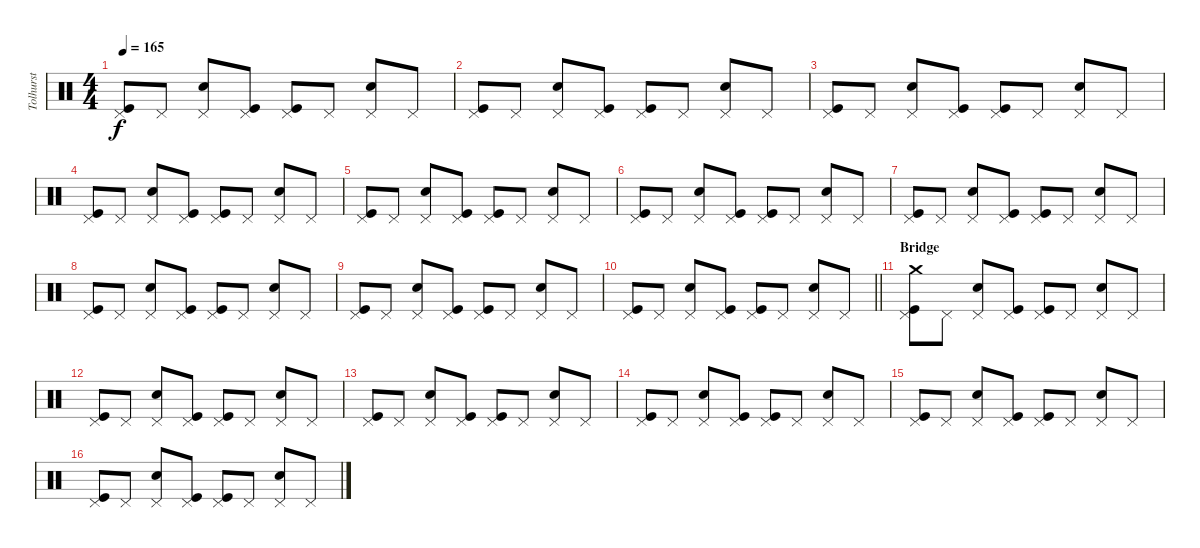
\track ("Tolhurst" "Tolhurst") {instrument percussion}
\staff {score}
\articulation defaults
\ts (4 4)
\tempo 165
\clef neutral
\ks c
("Pedal Hi-Hat (hit)" "Kick (hit)").8{dy f} "Pedal Hi-Hat (hit)".8 ("Pedal Hi-Hat (hit)" "Snare (hit) 2").8 ("Pedal Hi-Hat (hit)" "Kick (hit)").8 ("Pedal Hi-Hat (hit)" "Kick (hit)").8 "Pedal Hi-Hat (hit)".8 ("Pedal Hi-Hat (hit)" "Snare (hit) 2").8 "Pedal Hi-Hat (hit)".8 |
("Pedal Hi-Hat (hit)" "Kick (hit)").8 "Pedal Hi-Hat (hit)".8 ("Pedal Hi-Hat (hit)" "Snare (hit) 2").8 ("Pedal Hi-Hat (hit)" "Kick (hit)").8 ("Pedal Hi-Hat (hit)" "Kick (hit)").8 "Pedal Hi-Hat (hit)".8 ("Pedal Hi-Hat (hit)" "Snare (hit) 2").8 "Pedal Hi-Hat (hit)".8 |
("Pedal Hi-Hat (hit)" "Kick (hit)").8 "Pedal Hi-Hat (hit)".8 ("Pedal Hi-Hat (hit)" "Snare (hit) 2").8 ("Pedal Hi-Hat (hit)" "Kick (hit)").8 ("Pedal Hi-Hat (hit)" "Kick (hit)").8 "Pedal Hi-Hat (hit)".8 ("Pedal Hi-Hat (hit)" "Snare (hit) 2").8 "Pedal Hi-Hat (hit)".8 |
("Pedal Hi-Hat (hit)" "Kick (hit)").8 "Pedal Hi-Hat (hit)".8 ("Pedal Hi-Hat (hit)" "Snare (hit) 2").8 ("Pedal Hi-Hat (hit)" "Kick (hit)").8 ("Pedal Hi-Hat (hit)" "Kick (hit)").8 "Pedal Hi-Hat (hit)".8 ("Pedal Hi-Hat (hit)" "Snare (hit) 2").8 "Pedal Hi-Hat (hit)".8 |
("Pedal Hi-Hat (hit)" "Kick (hit)").8 "Pedal Hi-Hat (hit)".8 ("Pedal Hi-Hat (hit)" "Snare (hit) 2").8 ("Pedal Hi-Hat (hit)" "Kick (hit)").8 ("Pedal Hi-Hat (hit)" "Kick (hit)").8 "Pedal Hi-Hat (hit)".8 ("Pedal Hi-Hat (hit)" "Snare (hit) 2").8 "Pedal Hi-Hat (hit)".8 |
("Pedal Hi-Hat (hit)" "Kick (hit)").8 "Pedal Hi-Hat (hit)".8 ("Pedal Hi-Hat (hit)" "Snare (hit) 2").8 ("Pedal Hi-Hat (hit)" "Kick (hit)").8 ("Pedal Hi-Hat (hit)" "Kick (hit)").8 "Pedal Hi-Hat (hit)".8 ("Pedal Hi-Hat (hit)" "Snare (hit) 2").8 "Pedal Hi-Hat (hit)".8 |
("Pedal Hi-Hat (hit)" "Kick (hit)").8 "Pedal Hi-Hat (hit)".8 ("Pedal Hi-Hat (hit)" "Snare (hit) 2").8 ("Pedal Hi-Hat (hit)" "Kick (hit)").8 ("Pedal Hi-Hat (hit)" "Kick (hit)").8 "Pedal Hi-Hat (hit)".8 ("Pedal Hi-Hat (hit)" "Snare (hit) 2").8 "Pedal Hi-Hat (hit)".8 |
("Pedal Hi-Hat (hit)" "Kick (hit)").8 "Pedal Hi-Hat (hit)".8 ("Pedal Hi-Hat (hit)" "Snare (hit) 2").8 ("Pedal Hi-Hat (hit)" "Kick (hit)").8 ("Pedal Hi-Hat (hit)" "Kick (hit)").8 "Pedal Hi-Hat (hit)".8 ("Pedal Hi-Hat (hit)" "Snare (hit) 2").8 "Pedal Hi-Hat (hit)".8 |
("Pedal Hi-Hat (hit)" "Kick (hit)").8 "Pedal Hi-Hat (hit)".8 ("Pedal Hi-Hat (hit)" "Snare (hit) 2").8 ("Pedal Hi-Hat (hit)" "Kick (hit)").8 ("Pedal Hi-Hat (hit)" "Kick (hit)").8 "Pedal Hi-Hat (hit)".8 ("Pedal Hi-Hat (hit)" "Snare (hit) 2").8 "Pedal Hi-Hat (hit)".8 |
\barLineRight lightlight
("Pedal Hi-Hat (hit)" "Kick (hit)").8 "Pedal Hi-Hat (hit)".8 ("Pedal Hi-Hat (hit)" "Snare (hit) 2").8 ("Pedal Hi-Hat (hit)" "Kick (hit)").8 ("Pedal Hi-Hat (hit)" "Kick (hit)").8 "Pedal Hi-Hat (hit)".8 ("Pedal Hi-Hat (hit)" "Snare (hit) 2").8 "Pedal Hi-Hat (hit)".8 |
\section ("" "Bridge")
("Crash medium (hit)" "Pedal Hi-Hat (hit)" "Kick (hit)").8 "Pedal Hi-Hat (hit)".8 ("Pedal Hi-Hat (hit)" "Snare (hit) 2").8 ("Pedal Hi-Hat (hit)" "Kick (hit)").8 ("Pedal Hi-Hat (hit)" "Kick (hit)").8 "Pedal Hi-Hat (hit)".8 ("Pedal Hi-Hat (hit)" "Snare (hit) 2").8 "Pedal Hi-Hat (hit)".8 |
("Pedal Hi-Hat (hit)" "Kick (hit)").8 "Pedal Hi-Hat (hit)".8 ("Pedal Hi-Hat (hit)" "Snare (hit) 2").8 ("Pedal Hi-Hat (hit)" "Kick (hit)").8 ("Pedal Hi-Hat (hit)" "Kick (hit)").8 "Pedal Hi-Hat (hit)".8 ("Pedal Hi-Hat (hit)" "Snare (hit) 2").8 "Pedal Hi-Hat (hit)".8 |
("Pedal Hi-Hat (hit)" "Kick (hit)").8 "Pedal Hi-Hat (hit)".8 ("Pedal Hi-Hat (hit)" "Snare (hit) 2").8 ("Pedal Hi-Hat (hit)" "Kick (hit)").8 ("Pedal Hi-Hat (hit)" "Kick (hit)").8 "Pedal Hi-Hat (hit)".8 ("Pedal Hi-Hat (hit)" "Snare (hit) 2").8 "Pedal Hi-Hat (hit)".8 |
("Pedal Hi-Hat (hit)" "Kick (hit)").8 "Pedal Hi-Hat (hit)".8 ("Pedal Hi-Hat (hit)" "Snare (hit) 2").8 ("Pedal Hi-Hat (hit)" "Kick (hit)").8 ("Pedal Hi-Hat (hit)" "Kick (hit)").8 "Pedal Hi-Hat (hit)".8 ("Pedal Hi-Hat (hit)" "Snare (hit) 2").8 "Pedal Hi-Hat (hit)".8 |
("Pedal Hi-Hat (hit)" "Kick (hit)").8 "Pedal Hi-Hat (hit)".8 ("Pedal Hi-Hat (hit)" "Snare (hit) 2").8 ("Pedal Hi-Hat (hit)" "Kick (hit)").8 ("Pedal Hi-Hat (hit)" "Kick (hit)").8 "Pedal Hi-Hat (hit)".8 ("Pedal Hi-Hat (hit)" "Snare (hit) 2").8 "Pedal Hi-Hat (hit)".8 |
("Pedal Hi-Hat (hit)" "Kick (hit)").8 "Pedal Hi-Hat (hit)".8 ("Pedal Hi-Hat (hit)" "Snare (hit) 2").8 ("Pedal Hi-Hat (hit)" "Kick (hit)").8 ("Pedal Hi-Hat (hit)" "Kick (hit)").8 "Pedal Hi-Hat (hit)".8 ("Pedal Hi-Hat (hit)" "Snare (hit) 2").8 "Pedal Hi-Hat (hit)".8
